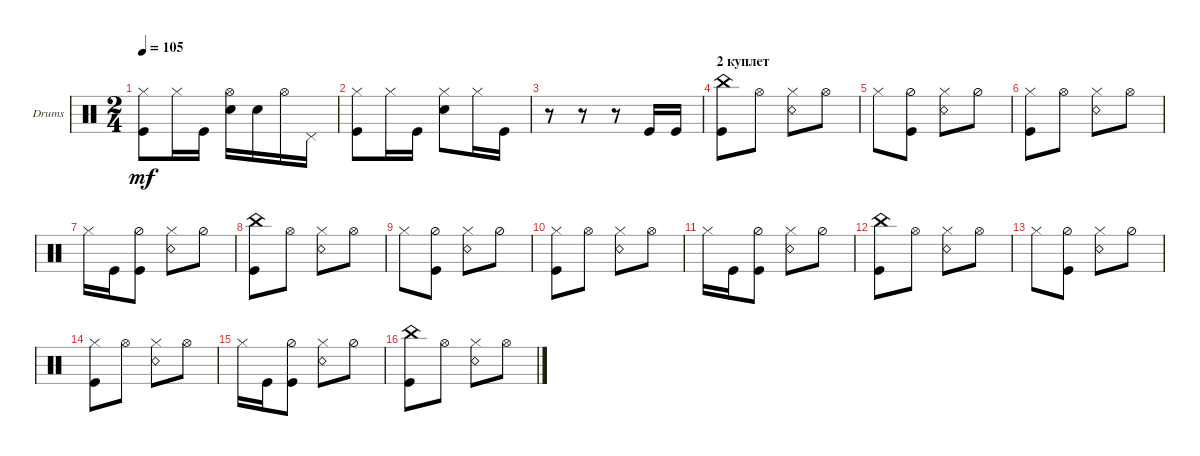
\defaultSystemsLayout 4
\bracketExtendMode groupsimilarinstruments
\firstSystemTrackNameOrientation horizontal
\otherSystemsTrackNameOrientation horizontal
\track ("Drumkit" "Drums") {instrument percussion}
\staff {score}
\articulation defaults
\ts (2 4)
\tempo 105
\clef neutral
\scale
0.5
\ks c
("Hi-Hat (closed)" "Kick (hit)").8{dy mf} "Hi-Hat (closed)".16 "Kick (hit)".16 ("Hi-Hat (open)" "Snare (hit) 2").16 "Snare (hit) 2".16 "Hi-Hat (open)".16 "Pedal Hi-Hat (hit)".16 |
("Hi-Hat (closed)" "Kick (hit)").8 "Hi-Hat (closed)".16 "Kick (hit)".16 ("Hi-Hat (closed)" "Snare (hit) 2").8 "Hi-Hat (closed)".16 "Kick (hit)".16 |
r.8 r.8 r.8 "Kick (hit)".16 "Kick (hit)".16 |
\section ("" "2 куплет")
("Kick (hit)" "China (hit)").8 "Hi-Hat (open)".8 ("Hi-Hat (closed)" "Snare (rim shot)").8 "Hi-Hat (open)".8 |
"Hi-Hat (closed)".8 ("Kick (hit)" "Hi-Hat (half)").8 ("Snare (rim shot)" "Hi-Hat (closed)").8 "Hi-Hat (half)".8 |
("Kick (hit)" "Hi-Hat (closed)").8 "Hi-Hat (open)".8 ("Hi-Hat (closed)" "Snare (rim shot)").8 "Hi-Hat (open)".8 |
"Hi-Hat (closed)".16 "Kick (hit)".16 ("Hi-Hat (half)" "Kick (hit)").8 ("Snare (rim shot)" "Hi-Hat (closed)").8 "Hi-Hat (half)".8 |
("Kick (hit)" "China (hit)").8 "Hi-Hat (open)".8 ("Hi-Hat (closed)" "Snare (rim shot)").8 "Hi-Hat (open)".8 |
"Hi-Hat (closed)".8 ("Kick (hit)" "Hi-Hat (half)").8 ("Snare (rim shot)" "Hi-Hat (closed)").8 "Hi-Hat (half)".8 |
("Kick (hit)" "Hi-Hat (closed)").8 "Hi-Hat (open)".8 ("Hi-Hat (closed)" "Snare (rim shot)").8 "Hi-Hat (open)".8 |
"Hi-Hat (closed)".16 "Kick (hit)".16 ("Hi-Hat (half)" "Kick (hit)").8 ("Snare (rim shot)" "Hi-Hat (closed)").8 "Hi-Hat (half)".8 |
("Kick (hit)" "China (hit)").8 "Hi-Hat (open)".8 ("Hi-Hat (closed)" "Snare (rim shot)").8 "Hi-Hat (open)".8 |
"Hi-Hat (closed)".8 ("Kick (hit)" "Hi-Hat (half)").8 ("Snare (rim shot)" "Hi-Hat (closed)").8 "Hi-Hat (half)".8 |
("Kick (hit)" "Hi-Hat (closed)").8 "Hi-Hat (open)".8 ("Hi-Hat (closed)" "Snare (rim shot)").8 "Hi-Hat (open)".8 |
"Hi-Hat (closed)".16 "Kick (hit)".16 ("Hi-Hat (half)" "Kick (hit)").8 ("Snare (rim shot)" "Hi-Hat (closed)").8 "Hi-Hat (half)".8 |
("Kick (hit)" "China (hit)").8 "Hi-Hat (open)".8 ("Hi-Hat (closed)" "Snare (rim shot)").8 "Hi-Hat (open)".8
